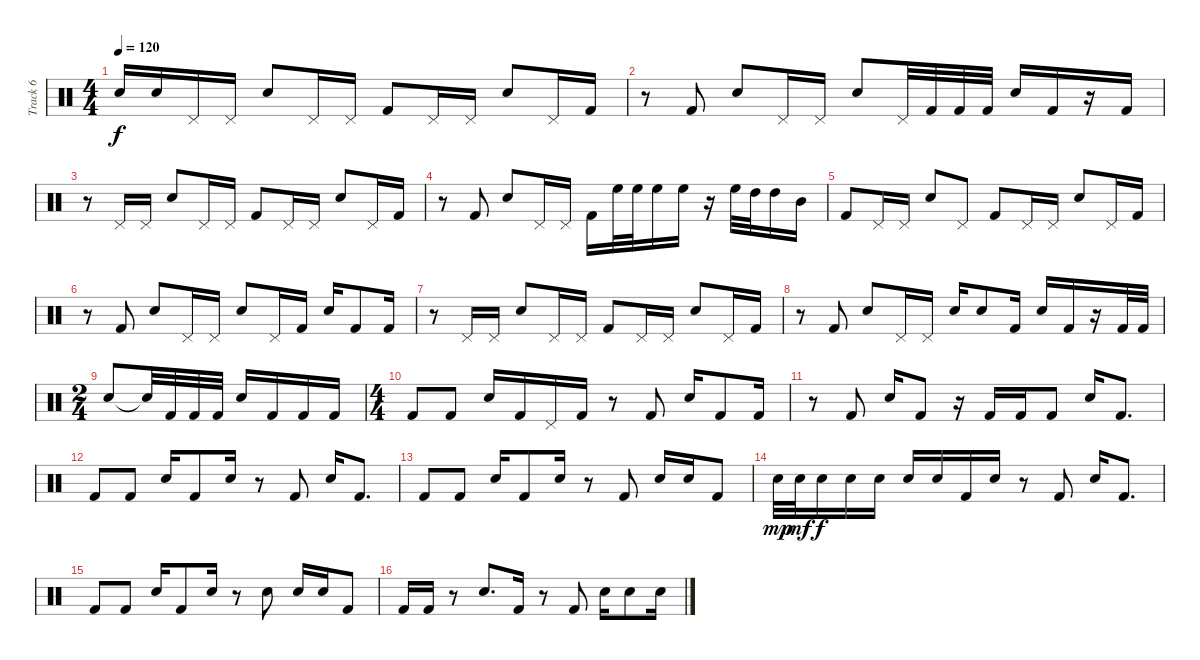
\track ("Track 6" "Track 6") {instrument percussion}
\staff {score}
\articulation defaults
\ts (4 4)
\tempo 120
\clef neutral
\ks c "Electric Snare (hit)".16{dy f} "Electric Snare (hit)".16 "Pedal Hi-Hat (hit)".16 "Pedal Hi-Hat (hit)".16 "Electric Snare (hit)".8 "Pedal Hi-Hat (hit)".16 "Pedal Hi-Hat (hit)".16 "Kick (hit) 2".8 "Pedal Hi-Hat (hit)".16 "Pedal Hi-Hat (hit)".16 "Electric Snare (hit)".8 "Pedal Hi-Hat (hit)".16 "Kick (hit) 2".16
|
r.8 "Kick (hit) 2".8 "Electric Snare (hit)".8 "Pedal Hi-Hat (hit)".16 "Pedal Hi-Hat (hit)".16 "Electric Snare (hit)".8 "Pedal Hi-Hat (hit)".32 "Kick (hit) 2".32 "Kick (hit) 2".32 "Kick (hit) 2".32 "Electric Snare (hit)".16 "Kick (hit) 2".16 r.16 "Kick (hit) 2".16 |
r.8 "Pedal Hi-Hat (hit)".16 "Pedal Hi-Hat (hit)".16 "Electric Snare (hit)".8 "Pedal Hi-Hat (hit)".16 "Pedal Hi-Hat (hit)".16 "Kick (hit) 2".8 "Pedal Hi-Hat (hit)".16 "Pedal Hi-Hat (hit)".16 "Electric Snare (hit)".8 "Pedal Hi-Hat (hit)".16 "Kick (hit) 2".16 |
r.8 "Kick (hit) 2".8 "Electric Snare (hit)".8 "Pedal Hi-Hat (hit)".16 "Pedal Hi-Hat (hit)".16 "Kick (hit) 2".16 "High Floor Tom (hit)".32 "High Floor Tom (hit)".32 "High Floor Tom (hit)".16 "High Floor Tom (hit)".16 r.16 "High Floor Tom (hit)".32 "High Tom (hit)".32 "High Tom (hit)".16 "Mid Tom (hit)".16 |
"Kick (hit) 2".8 "Pedal Hi-Hat (hit)".16 "Pedal Hi-Hat (hit)".16 "Electric Snare (hit)".8 "Pedal Hi-Hat (hit)".8 "Kick (hit) 2".8 "Pedal Hi-Hat (hit)".16 "Pedal Hi-Hat (hit)".16 "Electric Snare (hit)".8 "Pedal Hi-Hat (hit)".16 "Kick (hit) 2".16 |
r.8 "Kick (hit) 2".8 "Electric Snare (hit)".8 "Pedal Hi-Hat (hit)".16 "Pedal Hi-Hat (hit)".16 "Electric Snare (hit)".8 "Pedal Hi-Hat (hit)".16 "Kick (hit) 2".16 "Electric Snare (hit)".16 "Kick (hit) 2".8 "Kick (hit) 2".16 |
r.8 "Pedal Hi-Hat (hit)".16 "Pedal Hi-Hat (hit)".16 "Electric Snare (hit)".8 "Pedal Hi-Hat (hit)".16 "Pedal Hi-Hat (hit)".16 "Kick (hit) 2".8 "Pedal Hi-Hat (hit)".16 "Pedal Hi-Hat (hit)".16 "Electric Snare (hit)".8 "Pedal Hi-Hat (hit)".16 "Kick (hit) 2".16 |
r.8 "Kick (hit) 2".8 "Electric Snare (hit)".8 "Pedal Hi-Hat (hit)".16 "Pedal Hi-Hat (hit)".16 "Electric Snare (hit)".16 "Electric Snare (hit)".8 "Kick (hit) 2".16 "Electric Snare (hit)".16 "Kick (hit) 2".16 r.16 "Kick (hit) 2".32 "Kick (hit) 2".32 |
\ts (2 4)
"Electric Snare (hit)".8 "Snare (hit)"{t}.32 "Kick (hit) 2".32 "Kick (hit) 2".32 "Kick (hit) 2".32 "Electric Snare (hit)".16 "Kick (hit) 2".16 "Kick (hit) 2".16 "Kick (hit) 2".16 |
\ts (4 4)
"Kick (hit) 2".8 "Kick (hit) 2".8 "Electric Snare (hit)".16 "Kick (hit) 2".16 "Pedal Hi-Hat (hit)".16 "Kick (hit) 2".16 r.8 "Kick (hit) 2".8 "Electric Snare (hit)".16 "Kick (hit) 2".8 "Kick (hit) 2".16 |
r.8 "Kick (hit) 2".8 "Electric Snare (hit)".16 "Kick (hit) 2".8 r.16 "Kick (hit) 2".16 "Kick (hit) 2".16 "Kick (hit) 2".8 "Electric Snare (hit)".16 "Kick (hit) 2".8{d} |
"Kick (hit) 2".8 "Kick (hit) 2".8 "Electric Snare (hit)".16 "Kick (hit) 2".8 "Electric Snare (hit)".16 r.8 "Kick (hit) 2".8 "Electric Snare (hit)".16 "Kick (hit) 2".8{d} |
"Kick (hit) 2".8 "Kick (hit) 2".8 "Electric Snare (hit)".16 "Kick (hit) 2".8 "Electric Snare (hit)".16 r.8 "Kick (hit) 2".8 "Electric Snare (hit)".16 "Electric Snare (hit)".16 "Kick (hit) 2".8 |
"Electric Snare (hit)".32{dy mp} "Electric Snare (hit)".32{dy mf} "Electric Snare (hit)".16{dy f} "Electric Snare (hit)".16 "Electric Snare (hit)".16 "Electric Snare (hit)".16 "Electric Snare (hit)".16 "Kick (hit) 2".16 "Electric Snare (hit)".16 r.8 "Kick (hit) 2".8 "Electric Snare (hit)".16 "Kick (hit) 2".8{d} |
"Kick (hit) 2".8 "Kick (hit) 2".8 "Electric Snare (hit)".16 "Kick (hit) 2".8 "Electric Snare (hit)".16 r.8 "Electric Snare (hit)".8 "Electric Snare (hit)".16 "Electric Snare (hit)".16 "Kick (hit) 2".8 |
"Kick (hit) 2".16 "Kick (hit) 2".16 r.8 "Electric Snare (hit)".8{d} "Kick (hit) 2".16 r.8 "Kick (hit) 2".8 "Electric Snare (hit)".16 "Electric Snare (hit)".8 "Electric Snare (hit)".16
